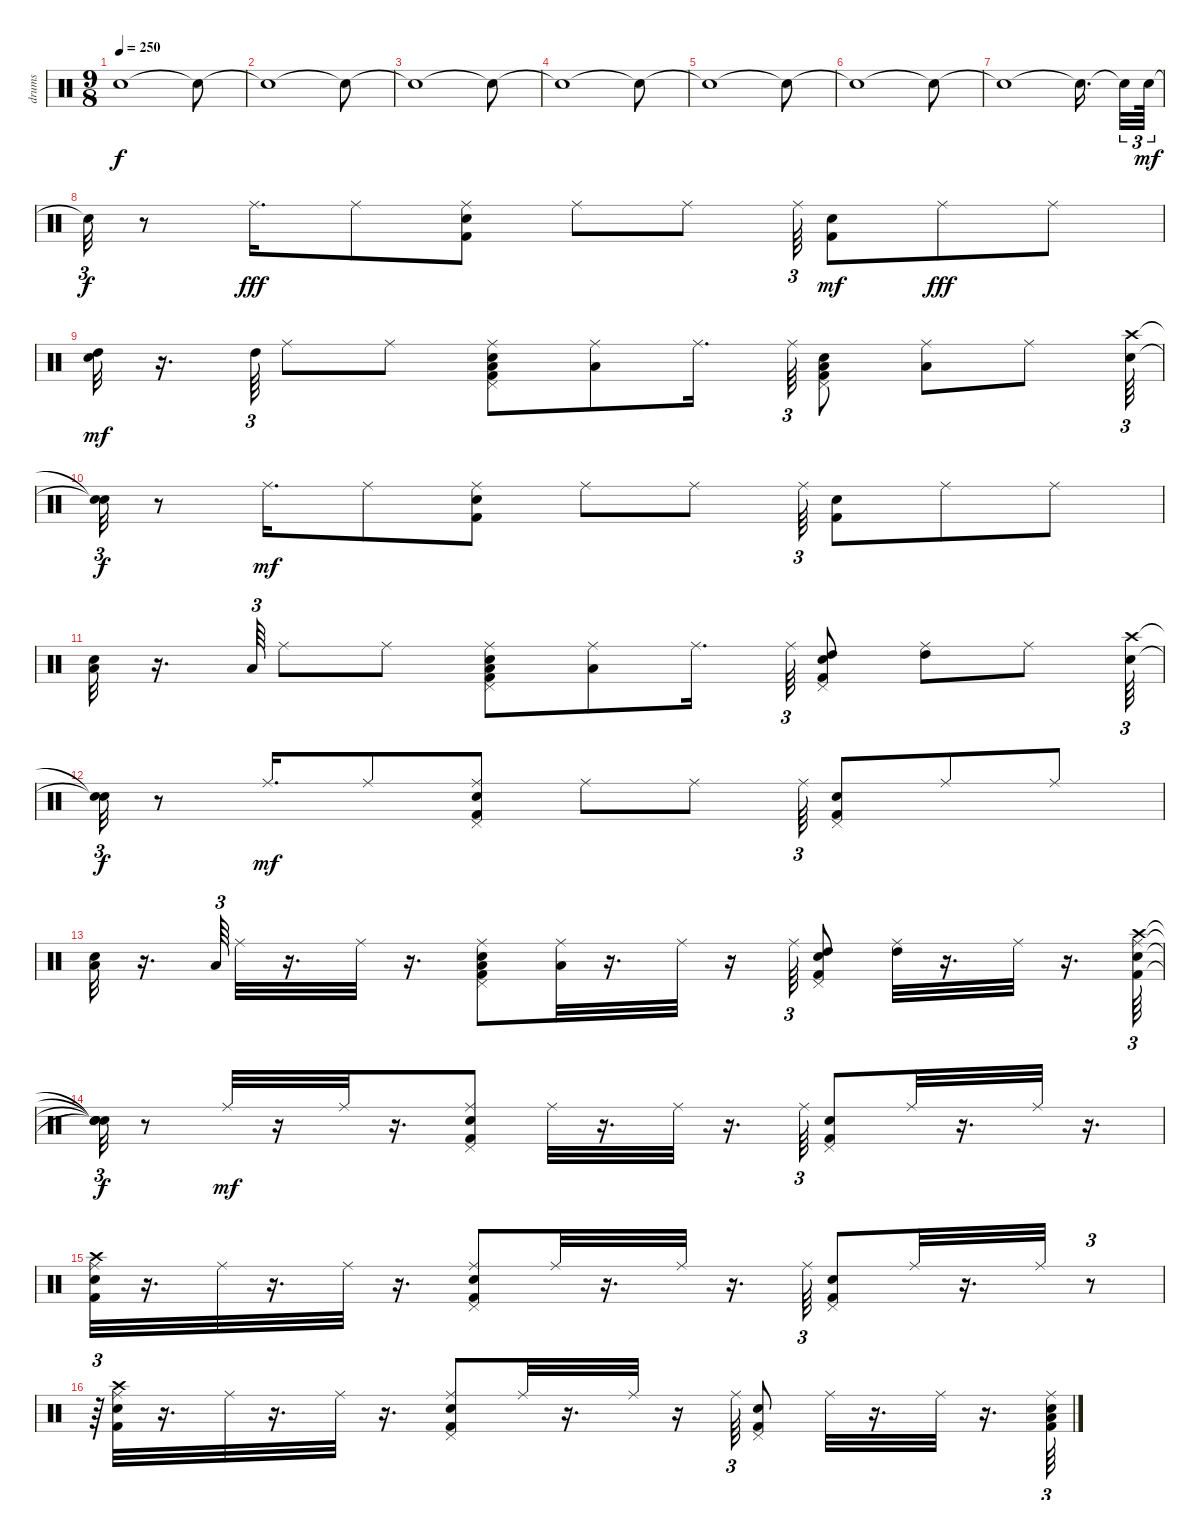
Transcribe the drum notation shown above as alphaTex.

\track ("drums               " "drums     ") {instrument percussion}
\staff {score}
\articulation defaults
\ts (9 8)
\tempo 250
\clef neutral
\ks c "Snare (hit)"{t}.1{dy f} "Snare (hit)"{t}.8
|
"Snare (hit)"{t}.1 "Snare (hit)"{t}.8 |
"Snare (hit)"{t}.1 "Snare (hit)"{t}.8 |
"Snare (hit)"{t}.1 "Snare (hit)"{t}.8 |
"Snare (hit)"{t}.1 "Snare (hit)"{t}.8 |
"Snare (hit)"{t}.1 "Snare (hit)"{t}.8 |
"Snare (hit)"{t}.1 "Snare (hit)"{t}.16{d} "Snare (hit)"{t}.32{tu (3 2)} "Snare (hit) 2".64{tu (3 2) dy mf} |
"Snare (hit)"{t}.32{tu (3 2) dy f} r.8 "Ride (middle)".16{d dy fff} "Ride (middle)".8 ("Snare (hit) 2" "Kick (hit) 2" "Ride (middle)").8 "Ride (middle)".8 "Ride (middle)".8 "Ride (middle)".64{tu (3 2)} ("Kick (hit) 2" "Snare (hit) 2").8{dy mf} "Ride (middle)".8{dy fff} "Ride (middle)".8 |
("Snare (hit) 2" "High Tom (hit)").32{dy mf} r.16{d} "High Tom (hit)".64{tu (3 2)} "Ride (middle)".8 "Ride (middle)".8 ("Pedal Hi-Hat (hit)" "Snare (hit) 2" "Kick (hit) 2" "Low Tom (hit)" "Ride (middle)").8 ("Low Tom (hit)" "Ride (middle)").8 "Ride (middle)".16{d} "Ride (middle)".64{tu (3 2)} ("Snare (hit) 2" "Kick (hit) 2" "Low Floor Tom (hit)" "Pedal Hi-Hat (hit)").8 ("Low Floor Tom (hit)" "Ride (middle)").8 "Ride (middle)".8 ("Snare (hit) 2" "Crash high (hit)").64{tu (3 2)} |
("Snare (hit)"{t} "Snare (hit)"{t}).32{tu (3 2) dy f} r.8 "Ride (middle)".16{d dy mf} "Ride (middle)".8 ("Snare (hit) 2" "Kick (hit) 2" "Ride (middle)").8 "Ride (middle)".8 "Ride (middle)".8 "Ride (middle)".64{tu (3 2)} ("Snare (hit) 2" "Kick (hit) 2").8 "Ride (middle)".8 "Ride (middle)".8 |
("Snare (hit) 2" "Low Floor Tom (hit)").32 r.16{d} "Low Floor Tom (hit)".64{tu (3 2)} "Ride (middle)".8 "Ride (middle)".8 ("Pedal Hi-Hat (hit)" "Snare (hit) 2" "Kick (hit) 2" "Low Tom (hit)" "Ride (middle)").8 ("Low Tom (hit)" "Ride (middle)").8 "Ride (middle)".16{d} "Ride (middle)".64{tu (3 2)} ("Snare (hit) 2" "Kick (hit) 2" "Pedal Hi-Hat (hit)" "High Tom (hit)").8 ("High Tom (hit)" "Ride (middle)").8 "Ride (middle)".8 ("Snare (hit) 2" "Crash high (hit)").64{tu (3 2)} |
("Snare (hit)"{t} "Snare (hit)"{t}).32{tu (3 2) dy f} r.8 "Ride (middle)".16{d dy mf} "Ride (middle)".8 ("Pedal Hi-Hat (hit)" "Snare (hit) 2" "Kick (hit) 2" "Ride (middle)").8 "Ride (middle)".8 "Ride (middle)".8 "Ride (middle)".64{tu (3 2)} ("Snare (hit) 2" "Kick (hit) 2" "Pedal Hi-Hat (hit)").8 "Ride (middle)".8 "Ride (middle)".8 |
("Snare (hit) 2" "Low Floor Tom (hit)").32 r.16{d} "Low Floor Tom (hit)".64{tu (3 2)} "Ride (middle)".32 r.16{d} "Ride (middle)".32 r.16{d} ("Pedal Hi-Hat (hit)" "Snare (hit) 2" "Kick (hit) 2" "Low Tom (hit)" "Ride (middle)").8 ("Low Tom (hit)" "Ride (middle)").32 r.16{d} "Ride (middle)".32 r.16 "Ride (middle)".64{tu (3 2)} ("Snare (hit) 2" "Kick (hit) 2" "Pedal Hi-Hat (hit)" "High Tom (hit)").8 ("High Tom (hit)" "Ride (middle)").32 r.16{d} "Ride (middle)".32 r.16{d} ("Kick (hit) 2" "Snare (hit) 2" "Crash high (hit)" "Ride (middle)").64{tu (3 2)} |
("Snare (hit)"{t} "Snare (hit)"{t} "Snare (hit)"{t} "Snare (hit)"{t}).32{tu (3 2) dy f} r.8 "Ride (middle)".32{dy mf} r.16 "Ride (middle)".32 r.16{d} ("Pedal Hi-Hat (hit)" "Snare (hit) 2" "Kick (hit) 2" "Ride (middle)").8 "Ride (middle)".32 r.16{d} "Ride (middle)".32 r.16{d} "Ride (middle)".64{tu (3 2)} ("Snare (hit) 2" "Kick (hit) 2" "Pedal Hi-Hat (hit)").8 "Ride (middle)".32 r.16{d} "Ride (middle)".32 r.16{d} |
("Kick (hit) 2" "Snare (hit) 2" "Crash high (hit)" "Ride (middle)").32 r.16{d} "Ride (middle)".32 r.16{d} "Ride (middle)".32 r.16{d} ("Pedal Hi-Hat (hit)" "Snare (hit) 2" "Kick (hit) 2" "Ride (middle)").8 "Ride (middle)".32 r.16{d} "Ride (middle)".32 r.16{d} "Ride (middle)".64{tu (3 2)} ("Snare (hit) 2" "Kick (hit) 2" "Pedal Hi-Hat (hit)").8 "Ride (middle)".32 r.16{d} "Ride (middle)".32 r.8{tu (3 2)} |
r.64{tu (3 2)} ("Kick (hit) 2" "Snare (hit) 2" "Crash high (hit)" "Ride (middle)").32 r.16{d} "Ride (middle)".32 r.16{d} "Ride (middle)".32 r.16{d} ("Pedal Hi-Hat (hit)" "Snare (hit) 2" "Kick (hit) 2" "Ride (middle)").8 "Ride (middle)".32 r.16{d} "Ride (middle)".32 r.16 "Ride (middle)".64{tu (3 2)} ("Snare (hit) 2" "Kick (hit) 2" "Pedal Hi-Hat (hit)").8 "Ride (middle)".32 r.16{d} "Ride (middle)".32 r.16{d} ("Kick (hit) 2" "Snare (hit) 2" "Low Floor Tom (hit)" "Ride (middle)").64{tu (3 2)}
